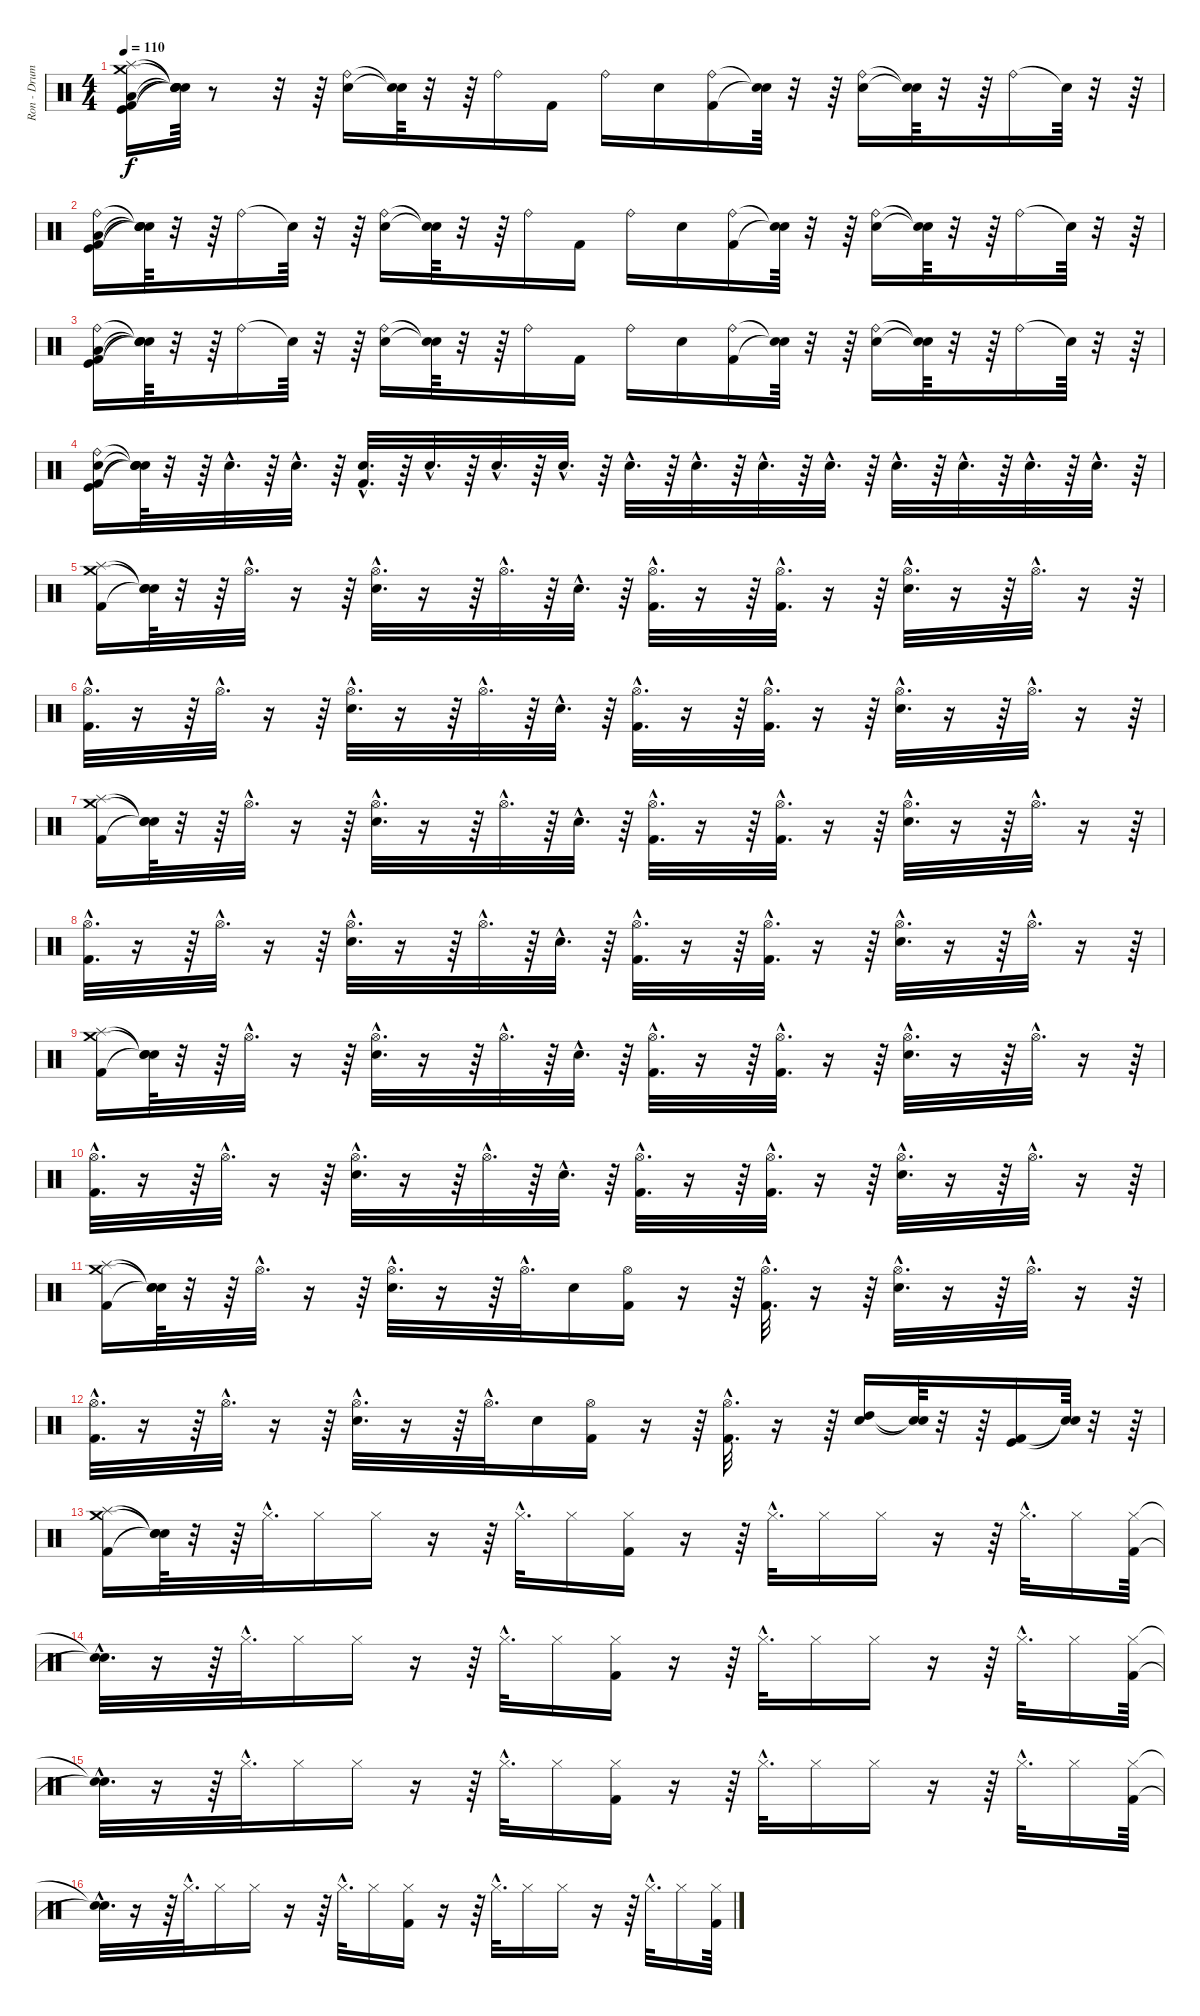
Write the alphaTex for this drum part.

\track ("Ron - Drums" "Ron - Drum") {instrument percussion}
\staff {score}
\articulation defaults
\ts (4 4)
\tempo 110
\clef neutral
\ks c
("Kick (hit) 2" "Low Tom (hit)" "Kick (hit)" "Splash (hit)" "Crash medium (hit)").16{dy f} ("Snare (hit)"{t} "Snare (hit)"{t} "Snare (hit)"{t} "Snare (hit)"{t} "Snare (hit)"{t}).64 r.8 r.32 r.64 ("Electric Snare (hit)" "Ride (bell)").16 ("Snare (hit)"{t} "Snare (hit)"{t}).64 r.32 r.64 "Ride (bell)".16 "Kick (hit) 2".16 "Ride (bell)".16 "Electric Snare (hit)".16 ("Kick (hit) 2" "Ride (bell)").16 ("Snare (hit)"{t} "Snare (hit)"{t}).64 r.32 r.64 ("Electric Snare (hit)" "Ride (bell)").16 ("Snare (hit)"{t} "Snare (hit)"{t}).64 r.32 r.64 "Ride (bell)".16 "Snare (hit)"{t}.64 r.32 r.64 |
("Kick (hit) 2" "Low Tom (hit)" "Kick (hit)" "Ride (bell)").16 ("Snare (hit)"{t} "Snare (hit)"{t} "Snare (hit)"{t} "Snare (hit)"{t}).64 r.32 r.64 "Ride (bell)".16 "Snare (hit)"{t}.64 r.32 r.64 ("Electric Snare (hit)" "Ride (bell)").16 ("Snare (hit)"{t} "Snare (hit)"{t}).64 r.32 r.64 "Ride (bell)".16 "Kick (hit) 2".16 "Ride (bell)".16 "Electric Snare (hit)".16 ("Kick (hit) 2" "Ride (bell)").16 ("Snare (hit)"{t} "Snare (hit)"{t}).64 r.32 r.64 ("Electric Snare (hit)" "Ride (bell)").16 ("Snare (hit)"{t} "Snare (hit)"{t}).64 r.32 r.64 "Ride (bell)".16 "Snare (hit)"{t}.64 r.32 r.64 |
("Low Tom (hit)" "Kick (hit) 2" "Kick (hit)" "Ride (bell)").16 ("Snare (hit)"{t} "Snare (hit)"{t} "Snare (hit)"{t} "Snare (hit)"{t}).64 r.32 r.64 "Ride (bell)".16 "Snare (hit)"{t}.64 r.32 r.64 ("Ride (bell)" "Electric Snare (hit)").16 ("Snare (hit)"{t} "Snare (hit)"{t}).64 r.32 r.64 "Ride (bell)".16 "Kick (hit) 2".16 "Ride (bell)".16 "Electric Snare (hit)".16 ("Ride (bell)" "Kick (hit) 2").16 ("Snare (hit)"{t} "Snare (hit)"{t}).64 r.32 r.64 ("Ride (bell)" "Electric Snare (hit)").16 ("Snare (hit)"{t} "Snare (hit)"{t}).64 r.32 r.64 "Ride (bell)".16 "Snare (hit)"{t}.64 r.32 r.64 |
("Kick (hit) 2" "Kick (hit)" "Ride (bell)" "Electric Snare (hit)").16 ("Snare (hit)"{t} "Snare (hit)"{t} "Snare (hit)"{t} "Snare (hit)"{t}).64 r.32 r.64 "Electric Snare (hit)"{hac}.32{d} r.64 "Electric Snare (hit)"{hac}.32{d} r.64 ("Electric Snare (hit)"{hac} "Kick (hit) 2"{hac}).32{d} r.64 "Electric Snare (hit)"{hac}.32{d} r.64 "Electric Snare (hit)"{hac}.32{d} r.64 "Electric Snare (hit)"{hac}.32{d} r.64 "Electric Snare (hit)"{hac}.32{d} r.64 "Electric Snare (hit)"{hac}.32{d} r.64 "Electric Snare (hit)"{hac}.32{d} r.64 "Electric Snare (hit)"{hac}.32{d} r.64 "Electric Snare (hit)"{hac}.32{d} r.64 "Electric Snare (hit)"{hac}.32{d} r.64 "Electric Snare (hit)"{hac}.32{d} r.64 "Electric Snare (hit)"{hac}.32{d} r.64 |
("Crash medium (hit)" "Splash (hit)" "Kick (hit) 2").16 ("Snare (hit)"{t} "Snare (hit)"{t} "Snare (hit)"{t}).64 r.32 r.64 "Hi-Hat (open)"{hac}.32{d} r.16 r.64 ("Hi-Hat (open)"{hac} "Electric Snare (hit)"{hac}).32{d} r.16 r.64 "Hi-Hat (open)"{hac}.32{d} r.64 "Electric Snare (hit)"{hac}.32{d} r.64 ("Hi-Hat (open)"{hac} "Kick (hit) 2"{hac}).32{d} r.16 r.64 ("Hi-Hat (open)"{hac} "Kick (hit) 2"{hac}).32{d} r.16 r.64 ("Hi-Hat (open)"{hac} "Electric Snare (hit)"{hac}).32{d} r.16 r.64 "Hi-Hat (open)"{hac}.32{d} r.16 r.64 |
("Hi-Hat (open)"{hac} "Kick (hit) 2"{hac}).32{d} r.16 r.64 "Hi-Hat (open)"{hac}.32{d} r.16 r.64 ("Hi-Hat (open)"{hac} "Electric Snare (hit)"{hac}).32{d} r.16 r.64 "Hi-Hat (open)"{hac}.32{d} r.64 "Electric Snare (hit)"{hac}.32{d} r.64 ("Hi-Hat (open)"{hac} "Kick (hit) 2"{hac}).32{d} r.16 r.64 ("Hi-Hat (open)"{hac} "Kick (hit) 2"{hac}).32{d} r.16 r.64 ("Hi-Hat (open)"{hac} "Electric Snare (hit)"{hac}).32{d} r.16 r.64 "Hi-Hat (open)"{hac}.32{d} r.16 r.64 |
("Crash medium (hit)" "Splash (hit)" "Kick (hit) 2").16 ("Snare (hit)"{t} "Snare (hit)"{t} "Snare (hit)"{t}).64 r.32 r.64 "Hi-Hat (open)"{hac}.32{d} r.16 r.64 ("Hi-Hat (open)"{hac} "Electric Snare (hit)"{hac}).32{d} r.16 r.64 "Hi-Hat (open)"{hac}.32{d} r.64 "Electric Snare (hit)"{hac}.32{d} r.64 ("Hi-Hat (open)"{hac} "Kick (hit) 2"{hac}).32{d} r.16 r.64 ("Hi-Hat (open)"{hac} "Kick (hit) 2"{hac}).32{d} r.16 r.64 ("Hi-Hat (open)"{hac} "Electric Snare (hit)"{hac}).32{d} r.16 r.64 "Hi-Hat (open)"{hac}.32{d} r.16 r.64 |
("Hi-Hat (open)"{hac} "Kick (hit) 2"{hac}).32{d} r.16 r.64 "Hi-Hat (open)"{hac}.32{d} r.16 r.64 ("Hi-Hat (open)"{hac} "Electric Snare (hit)"{hac}).32{d} r.16 r.64 "Hi-Hat (open)"{hac}.32{d} r.64 "Electric Snare (hit)"{hac}.32{d} r.64 ("Hi-Hat (open)"{hac} "Kick (hit) 2"{hac}).32{d} r.16 r.64 ("Hi-Hat (open)"{hac} "Kick (hit) 2"{hac}).32{d} r.16 r.64 ("Hi-Hat (open)"{hac} "Electric Snare (hit)"{hac}).32{d} r.16 r.64 "Hi-Hat (open)"{hac}.32{d} r.16 r.64 |
("Crash medium (hit)" "Splash (hit)" "Kick (hit) 2").16 ("Snare (hit)"{t} "Snare (hit)"{t} "Snare (hit)"{t}).64 r.32 r.64 "Hi-Hat (open)"{hac}.32{d} r.16 r.64 ("Hi-Hat (open)"{hac} "Electric Snare (hit)"{hac}).32{d} r.16 r.64 "Hi-Hat (open)"{hac}.32{d} r.64 "Electric Snare (hit)"{hac}.32{d} r.64 ("Hi-Hat (open)"{hac} "Kick (hit) 2"{hac}).32{d} r.16 r.64 ("Hi-Hat (open)"{hac} "Kick (hit) 2"{hac}).32{d} r.16 r.64 ("Hi-Hat (open)"{hac} "Electric Snare (hit)"{hac}).32{d} r.16 r.64 "Hi-Hat (open)"{hac}.32{d} r.16 r.64 |
("Hi-Hat (open)"{hac} "Kick (hit) 2"{hac}).32{d} r.16 r.64 "Hi-Hat (open)"{hac}.32{d} r.16 r.64 ("Hi-Hat (open)"{hac} "Electric Snare (hit)"{hac}).32{d} r.16 r.64 "Hi-Hat (open)"{hac}.32{d} r.64 "Electric Snare (hit)"{hac}.32{d} r.64 ("Hi-Hat (open)"{hac} "Kick (hit) 2"{hac}).32{d} r.16 r.64 ("Hi-Hat (open)"{hac} "Kick (hit) 2"{hac}).32{d} r.16 r.64 ("Hi-Hat (open)"{hac} "Electric Snare (hit)"{hac}).32{d} r.16 r.64 "Hi-Hat (open)"{hac}.32{d} r.16 r.64 |
("Crash medium (hit)" "Splash (hit)" "Kick (hit) 2").16 ("Snare (hit)"{t} "Snare (hit)"{t} "Snare (hit)"{t}).64 r.32 r.64 "Hi-Hat (open)"{hac}.32{d} r.16 r.64 ("Hi-Hat (open)"{hac} "Electric Snare (hit)"{hac}).32{d} r.16 r.64 "Hi-Hat (open)"{hac}.32{d} "Electric Snare (hit)".16 ("Hi-Hat (open)" "Kick (hit) 2").16 r.16 r.64 ("Hi-Hat (open)"{hac} "Kick (hit) 2"{hac}).32{d} r.16 r.64 ("Hi-Hat (open)"{hac} "Electric Snare (hit)"{hac}).32{d} r.16 r.64 "Hi-Hat (open)"{hac}.32{d} r.16 r.64 |
("Hi-Hat (open)"{hac} "Kick (hit) 2"{hac}).32{d} r.16 r.64 "Hi-Hat (open)"{hac}.32{d} r.16 r.64 ("Hi-Hat (open)"{hac} "Electric Snare (hit)"{hac}).32{d} r.16 r.64 "Hi-Hat (open)"{hac}.32{d} "Electric Snare (hit)".16 ("Hi-Hat (open)" "Kick (hit) 2").16 r.16 r.64 ("Hi-Hat (open)"{hac} "Kick (hit) 2"{hac}).32{d} r.16 r.64 ("High Tom (hit)" "Electric Snare (hit)").16 ("Snare (hit)"{t} "Snare (hit)"{t}).64 r.32 r.64 ("Kick (hit)" "Kick (hit) 2").16 ("Snare (hit)"{t} "Snare (hit)"{t}).64 r.32 r.64 |
("Splash (hit)" "Crash medium (hit)" "Kick (hit) 2").16 ("Snare (hit)"{t} "Snare (hit)"{t} "Snare (hit)"{t}).64 r.32 r.64 "Hi-Hat (closed)"{hac}.32{d} "Hi-Hat (closed)".16 "Hi-Hat (closed)".16 r.16 r.64 "Hi-Hat (closed)"{hac}.32{d} "Hi-Hat (closed)".16 ("Hi-Hat (closed)" "Kick (hit) 2").16 r.16 r.64 "Hi-Hat (closed)"{hac}.32{d} "Hi-Hat (closed)".16 "Hi-Hat (closed)".16 r.16 r.64 "Hi-Hat (closed)"{hac}.32{d} "Hi-Hat (closed)".16 ("Kick (hit) 2" "Hi-Hat (closed)").64 |
("Snare (hit)"{hac t} "Snare (hit)"{hac t}).32{d} r.16 r.64 "Hi-Hat (closed)"{hac}.32{d} "Hi-Hat (closed)".16 "Hi-Hat (closed)".16 r.16 r.64 "Hi-Hat (closed)"{hac}.32{d} "Hi-Hat (closed)".16 ("Hi-Hat (closed)" "Kick (hit) 2").16 r.16 r.64 "Hi-Hat (closed)"{hac}.32{d} "Hi-Hat (closed)".16 "Hi-Hat (closed)".16 r.16 r.64 "Hi-Hat (closed)"{hac}.32{d} "Hi-Hat (closed)".16 ("Kick (hit) 2" "Hi-Hat (closed)").64 |
("Snare (hit)"{hac t} "Snare (hit)"{hac t}).32{d} r.16 r.64 "Hi-Hat (closed)"{hac}.32{d} "Hi-Hat (closed)".16 "Hi-Hat (closed)".16 r.16 r.64 "Hi-Hat (closed)"{hac}.32{d} "Hi-Hat (closed)".16 ("Hi-Hat (closed)" "Kick (hit) 2").16 r.16 r.64 "Hi-Hat (closed)"{hac}.32{d} "Hi-Hat (closed)".16 "Hi-Hat (closed)".16 r.16 r.64 "Hi-Hat (closed)"{hac}.32{d} "Hi-Hat (closed)".16 ("Kick (hit) 2" "Hi-Hat (closed)").64 |
("Snare (hit)"{hac t} "Snare (hit)"{hac t}).32{d} r.16 r.64 "Hi-Hat (closed)"{hac}.32{d} "Hi-Hat (closed)".16 "Hi-Hat (closed)".16 r.16 r.64 "Hi-Hat (closed)"{hac}.32{d} "Hi-Hat (closed)".16 ("Hi-Hat (closed)" "Kick (hit) 2").16 r.16 r.64 "Hi-Hat (closed)"{hac}.32{d} "Hi-Hat (closed)".16 "Hi-Hat (closed)".16 r.16 r.64 "Hi-Hat (closed)"{hac}.32{d} "Hi-Hat (closed)".16 ("Kick (hit) 2" "Hi-Hat (closed)").64
